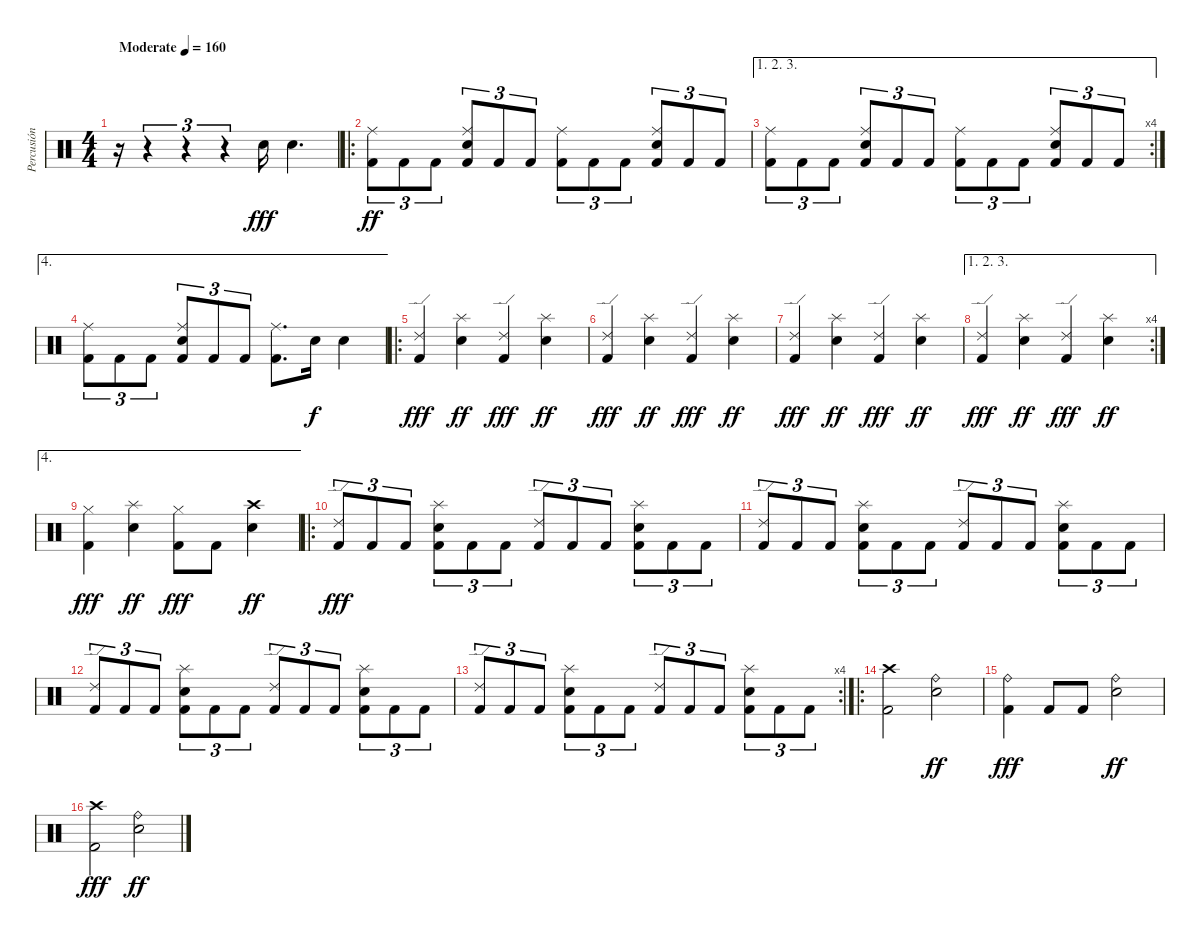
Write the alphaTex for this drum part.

\track ("Percusión" "Percusión") {instrument percussion}
\staff {score}
\articulation defaults
\ts (4 4)
\tempo (160 "Moderate")
\clef neutral
\ks c
r.16{dy fff} r.4{tu (3 2)} r.4{tu (3 2)} r.4{tu (3 2)} "Electric Snare (hit)".16 "Electric Snare (hit)".4{d} |
\ro
("Ride (middle)" "Kick (hit) 2").8{tu (3 2) dy ff} "Kick (hit) 2".8{tu (3 2)} "Kick (hit) 2".8{tu (3 2)} ("Ride (middle)" "Electric Snare (hit)" "Kick (hit) 2").8{tu (3 2)} "Kick (hit) 2".8{tu (3 2)} "Kick (hit) 2".8{tu (3 2)} ("Ride (middle)" "Kick (hit) 2").8{tu (3 2)} "Kick (hit) 2".8{tu (3 2)} "Kick (hit) 2".8{tu (3 2)} ("Ride (middle)" "Electric Snare (hit)" "Kick (hit) 2").8{tu (3 2)} "Kick (hit) 2".8{tu (3 2)} "Kick (hit) 2".8{tu (3 2)} |
\ae (1 2 3)
\rc 4
("Ride (middle)" "Kick (hit) 2").8{tu (3 2)} "Kick (hit) 2".8{tu (3 2)} "Kick (hit) 2".8{tu (3 2)} ("Ride (middle)" "Electric Snare (hit)" "Kick (hit) 2").8{tu (3 2)} "Kick (hit) 2".8{tu (3 2)} "Kick (hit) 2".8{tu (3 2)} ("Ride (middle)" "Kick (hit) 2").8{tu (3 2)} "Kick (hit) 2".8{tu (3 2)} "Kick (hit) 2".8{tu (3 2)} ("Ride (middle)" "Electric Snare (hit)" "Kick (hit) 2").8{tu (3 2)} "Kick (hit) 2".8{tu (3 2)} "Kick (hit) 2".8{tu (3 2)} |
\ae 4
("Ride (middle)" "Kick (hit) 2").8{tu (3 2)} "Kick (hit) 2".8{tu (3 2)} "Kick (hit) 2".8{tu (3 2)} ("Ride (middle)" "Electric Snare (hit)" "Kick (hit) 2").8{tu (3 2)} "Kick (hit) 2".8{tu (3 2)} "Kick (hit) 2".8{tu (3 2)} ("Ride (middle)" "Kick (hit) 2").8{d} "Electric Snare (hit)".16{dy f} "Electric Snare (hit)".4 |
\ro
("Ride (edge) 2" "Kick (hit) 2").4{dy fff} ("Splash (hit)" "Electric Snare (hit)").4{dy ff} ("Ride (edge) 2" "Kick (hit) 2").4{dy fff} ("Splash (hit)" "Electric Snare (hit)").4{dy ff} |
("Ride (edge) 2" "Kick (hit) 2").4{dy fff} ("Splash (hit)" "Electric Snare (hit)").4{dy ff} ("Ride (edge) 2" "Kick (hit) 2").4{dy fff} ("Splash (hit)" "Electric Snare (hit)").4{dy ff} |
("Ride (edge) 2" "Kick (hit) 2").4{dy fff} ("Splash (hit)" "Electric Snare (hit)").4{dy ff} ("Ride (edge) 2" "Kick (hit) 2").4{dy fff} ("Splash (hit)" "Electric Snare (hit)").4{dy ff} |
\ae (1 2 3)
\rc 4
("Ride (edge) 2" "Kick (hit) 2").4{dy fff} ("Splash (hit)" "Electric Snare (hit)").4{dy ff} ("Ride (edge) 2" "Kick (hit) 2").4{dy fff} ("Splash (hit)" "Electric Snare (hit)").4{dy ff} |
\ae 4
("Hi-Hat (closed)" "Kick (hit) 2").4{dy fff} ("Splash (hit)" "Electric Snare (hit)").4{dy ff} ("Hi-Hat (closed)" "Kick (hit) 2").8{dy fff} "Kick (hit) 2".8 ("Crash high (hit)" "Electric Snare (hit)").4{dy ff} |
\ro
("Ride (edge) 2" "Kick (hit) 2").8{tu (3 2) dy fff} "Kick (hit) 2".8{tu (3 2)} "Kick (hit) 2".8{tu (3 2)} ("Splash (hit)" "Electric Snare (hit)" "Kick (hit) 2").8{tu (3 2)} "Kick (hit) 2".8{tu (3 2)} "Kick (hit) 2".8{tu (3 2)} ("Ride (edge) 2" "Kick (hit) 2").8{tu (3 2)} "Kick (hit) 2".8{tu (3 2)} "Kick (hit) 2".8{tu (3 2)} ("Splash (hit)" "Electric Snare (hit)" "Kick (hit) 2").8{tu (3 2)} "Kick (hit) 2".8{tu (3 2)} "Kick (hit) 2".8{tu (3 2)} |
("Ride (edge) 2" "Kick (hit) 2").8{tu (3 2)} "Kick (hit) 2".8{tu (3 2)} "Kick (hit) 2".8{tu (3 2)} ("Splash (hit)" "Electric Snare (hit)" "Kick (hit) 2").8{tu (3 2)} "Kick (hit) 2".8{tu (3 2)} "Kick (hit) 2".8{tu (3 2)} ("Ride (edge) 2" "Kick (hit) 2").8{tu (3 2)} "Kick (hit) 2".8{tu (3 2)} "Kick (hit) 2".8{tu (3 2)} ("Splash (hit)" "Electric Snare (hit)" "Kick (hit) 2").8{tu (3 2)} "Kick (hit) 2".8{tu (3 2)} "Kick (hit) 2".8{tu (3 2)} |
("Ride (edge) 2" "Kick (hit) 2").8{tu (3 2)} "Kick (hit) 2".8{tu (3 2)} "Kick (hit) 2".8{tu (3 2)} ("Splash (hit)" "Electric Snare (hit)" "Kick (hit) 2").8{tu (3 2)} "Kick (hit) 2".8{tu (3 2)} "Kick (hit) 2".8{tu (3 2)} ("Ride (edge) 2" "Kick (hit) 2").8{tu (3 2)} "Kick (hit) 2".8{tu (3 2)} "Kick (hit) 2".8{tu (3 2)} ("Splash (hit)" "Electric Snare (hit)" "Kick (hit) 2").8{tu (3 2)} "Kick (hit) 2".8{tu (3 2)} "Kick (hit) 2".8{tu (3 2)} |
\rc 4
("Ride (edge) 2" "Kick (hit) 2").8{tu (3 2)} "Kick (hit) 2".8{tu (3 2)} "Kick (hit) 2".8{tu (3 2)} ("Splash (hit)" "Electric Snare (hit)" "Kick (hit) 2").8{tu (3 2)} "Kick (hit) 2".8{tu (3 2)} "Kick (hit) 2".8{tu (3 2)} ("Ride (edge) 2" "Kick (hit) 2").8{tu (3 2)} "Kick (hit) 2".8{tu (3 2)} "Kick (hit) 2".8{tu (3 2)} ("Splash (hit)" "Electric Snare (hit)" "Kick (hit) 2").8{tu (3 2)} "Kick (hit) 2".8{tu (3 2)} "Kick (hit) 2".8{tu (3 2)} |
\ro
("Crash high (hit)" "Kick (hit) 2").2 ("Ride (bell)" "Snare (hit) 2").2{dy ff} |
("Ride (bell)" "Kick (hit) 2").4{dy fff} "Kick (hit) 2".8 "Kick (hit) 2".8 ("Ride (bell)" "Snare (hit) 2").2{dy ff} |
("Crash high (hit)" "Kick (hit) 2").2{dy fff} ("Ride (bell)" "Snare (hit) 2").2{dy ff}
